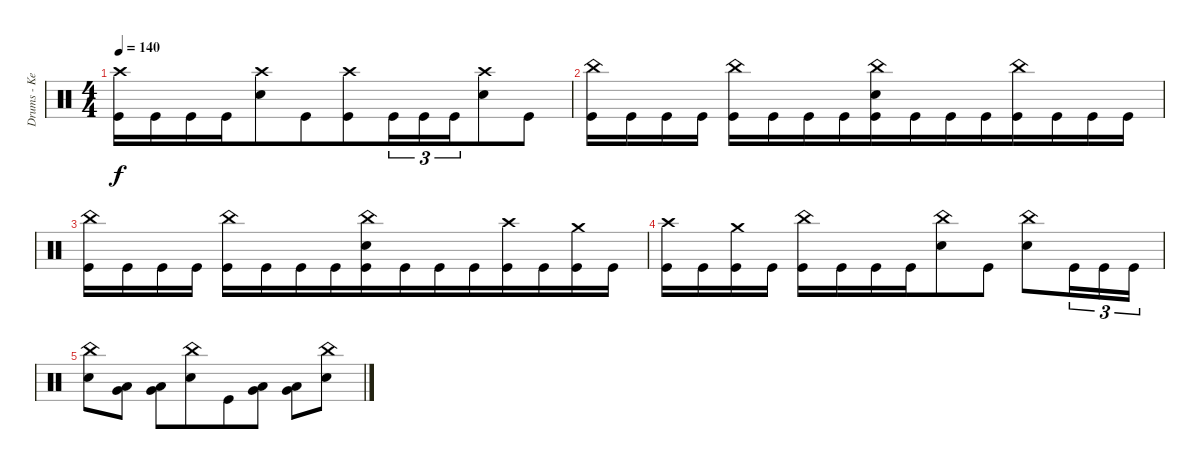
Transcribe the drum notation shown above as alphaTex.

\track ("Drums - Kevin Boutot" "Drums - Ke") {instrument percussion}
\staff {score}
\articulation defaults
\ts (4 4)
\tempo 140
\clef neutral
\ks c
("Crash high (hit)" "Kick (hit)").16{dy f} "Kick (hit)".16 "Kick (hit)".16 "Kick (hit)".16{beam merge} ("Crash high (hit)" "Electric Snare (hit)").8{beam merge} "Kick (hit)".8{beam merge} ("Crash high (hit)" "Kick (hit)").8{beam merge} "Kick (hit)".16{tu (3 2)} "Kick (hit)".16{tu (3 2)} "Kick (hit)".16{tu (3 2) beam merge} ("Crash high (hit)" "Electric Snare (hit)").8 "Kick (hit)".8 |
("China (hit)" "Kick (hit)").16{beam merge} "Kick (hit)".16{beam merge} "Kick (hit)".16{beam merge} "Kick (hit)".16 ("China (hit)" "Kick (hit)").16 "Kick (hit)".16 "Kick (hit)".16 "Kick (hit)".16{beam merge} ("China (hit)" "Electric Snare (hit)" "Kick (hit)").16 "Kick (hit)".16 "Kick (hit)".16 "Kick (hit)".16{beam merge} ("China (hit)" "Kick (hit)").16 "Kick (hit)".16 "Kick (hit)".16 "Kick (hit)".16 |
("China (hit)" "Kick (hit)").16{beam merge} "Kick (hit)".16{beam merge} "Kick (hit)".16{beam merge} "Kick (hit)".16 ("China (hit)" "Kick (hit)").16 "Kick (hit)".16 "Kick (hit)".16 "Kick (hit)".16{beam merge} ("China (hit)" "Electric Snare (hit)" "Kick (hit)").16 "Kick (hit)".16 "Kick (hit)".16 "Kick (hit)".16{beam merge} ("Crash high (hit)" "Kick (hit)").16 "Kick (hit)".16 ("Crash medium (hit)" "Kick (hit)").16 "Kick (hit)".16 |
("Crash high (hit)" "Kick (hit)").16{beam merge} "Kick (hit)".16{beam merge} ("Crash medium (hit)" "Kick (hit)").16{beam merge} "Kick (hit)".16 ("China (hit)" "Kick (hit)").16 "Kick (hit)".16 "Kick (hit)".16 "Kick (hit)".16{beam merge} ("China (hit)" "Electric Snare (hit)").8 "Kick (hit)".8 ("China (hit)" "Electric Snare (hit)").8{beam merge} "Kick (hit)".16{tu (3 2)} "Kick (hit)".16{tu (3 2)} "Kick (hit)".16{tu (3 2)} |
("China (hit)" "Electric Snare (hit)").8 ("Low Tom (hit)" "Very Low Tom (hit)").8 ("Very Low Tom (hit)" "Low Floor Tom (hit)").8{beam merge} ("China (hit)" "Electric Snare (hit)").8{beam merge} "Kick (hit)".8 ("Low Tom (hit)" "Very Low Tom (hit)").8 ("Very Low Tom (hit)" "Low Floor Tom (hit)").8 ("China (hit)" "Electric Snare (hit)").8
